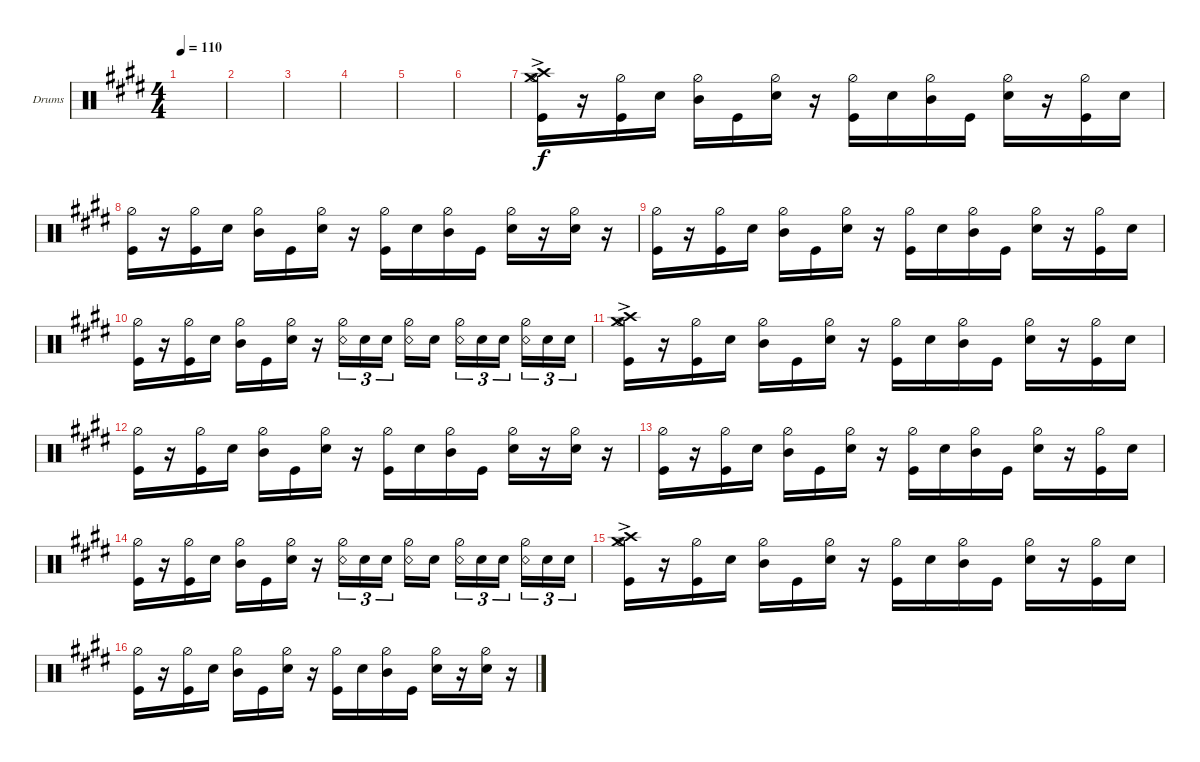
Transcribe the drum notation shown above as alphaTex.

\defaultSystemsLayout 4
\bracketExtendMode groupsimilarinstruments
\firstSystemTrackNameOrientation horizontal
\otherSystemsTrackNameOrientation horizontal
\track ("Drumkit" "Drums") {instrument percussion}
\staff {score}
\articulation defaults
\ts (4 4)
\tempo 110
\clef neutral
\ks c#minor
|
|
|
|
|
|
("Kick (hit)" "Hi-Hat (half)" "Crash medium (hit)" "Crash high (hit)"{ac}).16 r.16 ("Kick (hit)" "Hi-Hat (half)").16 "Snare (hit) 2".16 ("Mid Tom (hit)" "Hi-Hat (half)").16 "Kick (hit)".16 ("Snare (hit) 2" "Hi-Hat (half)").16 r.16 ("Kick (hit)" "Hi-Hat (half)").16 "Snare (hit) 2".16 ("Mid Tom (hit)" "Hi-Hat (half)").16 "Kick (hit)".16 ("Snare (hit) 2" "Hi-Hat (half)").16 r.16 ("Hi-Hat (half)" "Kick (hit)").16 "Snare (hit) 2".16 |
("Kick (hit)" "Hi-Hat (half)").16 r.16 ("Kick (hit)" "Hi-Hat (half)").16 "Snare (hit) 2".16 ("Mid Tom (hit)" "Hi-Hat (half)").16 "Kick (hit)".16 ("Snare (hit) 2" "Hi-Hat (half)").16 r.16 ("Kick (hit)" "Hi-Hat (half)").16 "Snare (hit) 2".16 ("Mid Tom (hit)" "Hi-Hat (half)").16 "Kick (hit)".16 ("Snare (hit) 2" "Hi-Hat (half)").16 r.16 ("Hi-Hat (half)" "Snare (hit) 2").16 r.16 |
("Kick (hit)" "Hi-Hat (half)").16 r.16 ("Kick (hit)" "Hi-Hat (half)").16 "Snare (hit) 2".16 ("Mid Tom (hit)" "Hi-Hat (half)").16 "Kick (hit)".16 ("Snare (hit) 2" "Hi-Hat (half)").16 r.16 ("Kick (hit)" "Hi-Hat (half)").16 "Snare (hit) 2".16 ("Mid Tom (hit)" "Hi-Hat (half)").16 "Kick (hit)".16 ("Snare (hit) 2" "Hi-Hat (half)").16 r.16 ("Hi-Hat (half)" "Kick (hit)").16 "Snare (hit) 2".16 |
("Kick (hit)" "Hi-Hat (half)").16 r.16 ("Kick (hit)" "Hi-Hat (half)").16 "Snare (hit) 2".16 ("Mid Tom (hit)" "Hi-Hat (half)").16 "Kick (hit)".16 ("Snare (hit) 2" "Hi-Hat (half)").16 r.16 ("Snare (rim shot)" "Hi-Hat (half)").16{tu (3 2)} "Snare (hit) 2".16{tu (3 2)} "Snare (hit) 2".16{tu (3 2)} ("Snare (rim shot)" "Hi-Hat (half)").16 "Snare (hit) 2".16 ("Snare (rim shot)" "Hi-Hat (half)").16{tu (3 2)} "Snare (hit) 2".16{tu (3 2)} "Snare (hit) 2".16{tu (3 2)} ("Snare (rim shot)" "Hi-Hat (half)").16{tu (3 2)} "Snare (hit) 2".16{tu (3 2)} "Snare (hit) 2".16{tu (3 2)} |
("Kick (hit)" "Hi-Hat (half)" "Crash medium (hit)" "Crash high (hit)"{ac}).16 r.16 ("Kick (hit)" "Hi-Hat (half)").16 "Snare (hit) 2".16 ("Mid Tom (hit)" "Hi-Hat (half)").16 "Kick (hit)".16 ("Snare (hit) 2" "Hi-Hat (half)").16 r.16 ("Kick (hit)" "Hi-Hat (half)").16 "Snare (hit) 2".16 ("Mid Tom (hit)" "Hi-Hat (half)").16 "Kick (hit)".16 ("Snare (hit) 2" "Hi-Hat (half)").16 r.16 ("Hi-Hat (half)" "Kick (hit)").16 "Snare (hit) 2".16 |
("Kick (hit)" "Hi-Hat (half)").16 r.16 ("Kick (hit)" "Hi-Hat (half)").16 "Snare (hit) 2".16 ("Mid Tom (hit)" "Hi-Hat (half)").16 "Kick (hit)".16 ("Snare (hit) 2" "Hi-Hat (half)").16 r.16 ("Kick (hit)" "Hi-Hat (half)").16 "Snare (hit) 2".16 ("Mid Tom (hit)" "Hi-Hat (half)").16 "Kick (hit)".16 ("Snare (hit) 2" "Hi-Hat (half)").16 r.16 ("Hi-Hat (half)" "Snare (hit) 2").16 r.16 |
("Kick (hit)" "Hi-Hat (half)").16 r.16 ("Kick (hit)" "Hi-Hat (half)").16 "Snare (hit) 2".16 ("Mid Tom (hit)" "Hi-Hat (half)").16 "Kick (hit)".16 ("Snare (hit) 2" "Hi-Hat (half)").16 r.16 ("Kick (hit)" "Hi-Hat (half)").16 "Snare (hit) 2".16 ("Mid Tom (hit)" "Hi-Hat (half)").16 "Kick (hit)".16 ("Snare (hit) 2" "Hi-Hat (half)").16 r.16 ("Hi-Hat (half)" "Kick (hit)").16 "Snare (hit) 2".16 |
("Kick (hit)" "Hi-Hat (half)").16 r.16 ("Kick (hit)" "Hi-Hat (half)").16 "Snare (hit) 2".16 ("Mid Tom (hit)" "Hi-Hat (half)").16 "Kick (hit)".16 ("Snare (hit) 2" "Hi-Hat (half)").16 r.16 ("Snare (rim shot)" "Hi-Hat (half)").16{tu (3 2)} "Snare (hit) 2".16{tu (3 2)} "Snare (hit) 2".16{tu (3 2)} ("Snare (rim shot)" "Hi-Hat (half)").16 "Snare (hit) 2".16 ("Snare (rim shot)" "Hi-Hat (half)").16{tu (3 2)} "Snare (hit) 2".16{tu (3 2)} "Snare (hit) 2".16{tu (3 2)} ("Snare (rim shot)" "Hi-Hat (half)").16{tu (3 2)} "Snare (hit) 2".16{tu (3 2)} "Snare (hit) 2".16{tu (3 2)} |
("Kick (hit)" "Hi-Hat (half)" "Crash medium (hit)" "Crash high (hit)"{ac}).16 r.16 ("Kick (hit)" "Hi-Hat (half)").16 "Snare (hit) 2".16 ("Mid Tom (hit)" "Hi-Hat (half)").16 "Kick (hit)".16 ("Snare (hit) 2" "Hi-Hat (half)").16 r.16 ("Kick (hit)" "Hi-Hat (half)").16 "Snare (hit) 2".16 ("Mid Tom (hit)" "Hi-Hat (half)").16 "Kick (hit)".16 ("Snare (hit) 2" "Hi-Hat (half)").16 r.16 ("Hi-Hat (half)" "Kick (hit)").16 "Snare (hit) 2".16 |
("Kick (hit)" "Hi-Hat (half)").16 r.16 ("Kick (hit)" "Hi-Hat (half)").16 "Snare (hit) 2".16 ("Mid Tom (hit)" "Hi-Hat (half)").16 "Kick (hit)".16 ("Snare (hit) 2" "Hi-Hat (half)").16 r.16 ("Kick (hit)" "Hi-Hat (half)").16 "Snare (hit) 2".16 ("Mid Tom (hit)" "Hi-Hat (half)").16 "Kick (hit)".16 ("Snare (hit) 2" "Hi-Hat (half)").16 r.16 ("Hi-Hat (half)" "Snare (hit) 2").16 r.16
